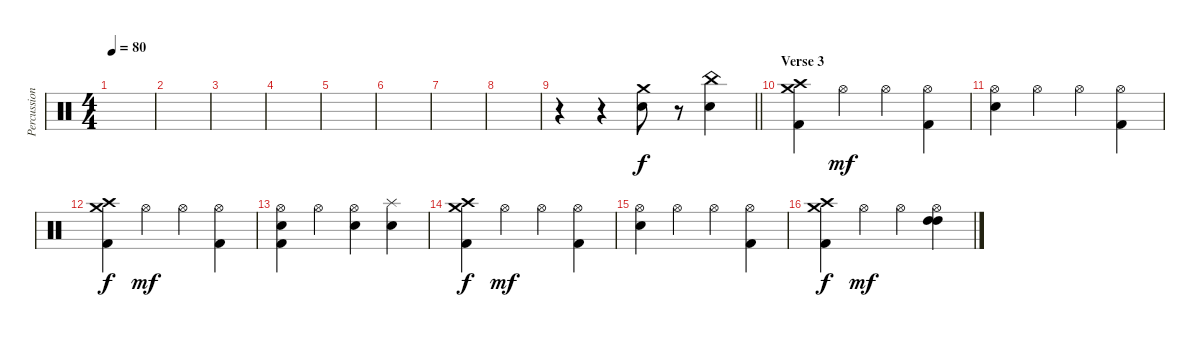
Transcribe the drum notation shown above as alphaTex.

\track ("Percussioni" "Percussion") {instrument percussion}
\staff {score}
\articulation defaults
\ts (4 4)
\tempo 80
\clef neutral
\ks c
|
|
|
|
|
|
|
|
\barLineRight lightlight
r.4 r.4 ("Crash medium (hit)" "Snare (hit) 2").8 r.8 ("China (hit)" "Snare (hit) 2").4 |
\section ("" "Verse 3")
("Crash high (hit)" "Crash medium (hit)" "Kick (hit) 2").4{dy f} "Hi-Hat (open)".4{dy mf} "Hi-Hat (open)".4 ("Hi-Hat (open)" "Kick (hit) 2").4 |
("Hi-Hat (open)" "Snare (hit) 2").4 "Hi-Hat (open)".4 "Hi-Hat (open)".4 ("Hi-Hat (open)" "Kick (hit) 2").4 |
("Crash high (hit)" "Crash medium (hit)" "Kick (hit) 2").4{dy f} "Hi-Hat (open)".4{dy mf} "Hi-Hat (open)".4 ("Hi-Hat (open)" "Kick (hit) 2").4 |
("Hi-Hat (open)" "Snare (hit) 2" "Kick (hit) 2").4 "Hi-Hat (open)".4 ("Hi-Hat (open)" "Electric Snare (hit)").4 ("Splash (hit)" "Electric Snare (hit)").4 |
("Crash high (hit)" "Crash medium (hit)" "Kick (hit) 2").4{dy f} "Hi-Hat (open)".4{dy mf} "Hi-Hat (open)".4 ("Hi-Hat (open)" "Kick (hit) 2").4 |
("Hi-Hat (open)" "Snare (hit) 2").4 "Hi-Hat (open)".4 "Hi-Hat (open)".4 ("Hi-Hat (open)" "Kick (hit) 2").4 |
("Crash high (hit)" "Crash medium (hit)" "Kick (hit) 2").4{dy f} "Hi-Hat (open)".4{dy mf} "Hi-Hat (open)".4 ("Hi-Hat (open)" "High Tom (hit)" "High Tom (hit)").4
